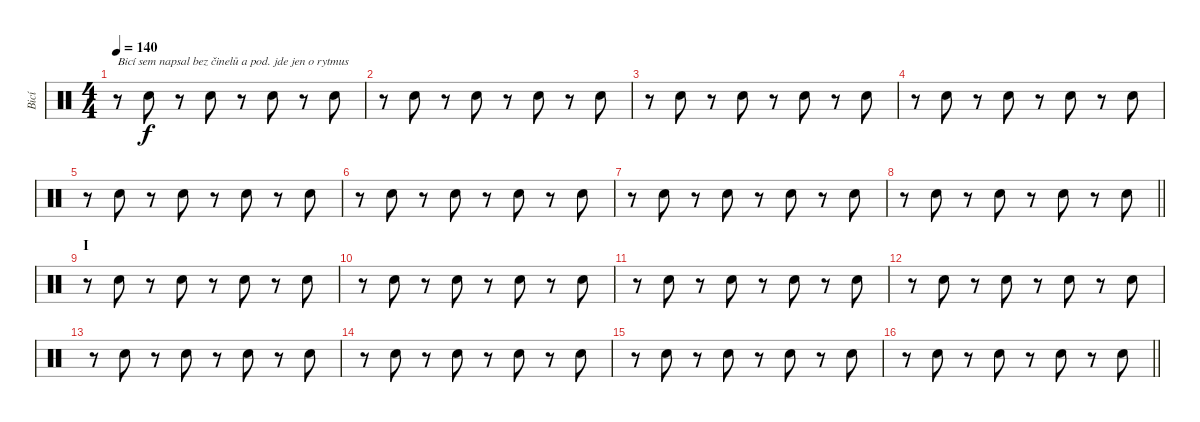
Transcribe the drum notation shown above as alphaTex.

\track ("Bicí" "Bicí") {instrument percussion}
\staff {score}
\articulation defaults
\ts (4 4)
\tempo 140
\clef neutral
\ks c
r.8{txt "Bicí sem napsal bez činelů a pod. jde jen o rytmus" dy f} "Electric Snare (hit)".8 r.8 "Electric Snare (hit)".8 r.8 "Electric Snare (hit)".8 r.8 "Electric Snare (hit)".8 |
r.8 "Electric Snare (hit)".8 r.8 "Electric Snare (hit)".8 r.8 "Electric Snare (hit)".8 r.8 "Electric Snare (hit)".8 |
r.8 "Electric Snare (hit)".8 r.8 "Electric Snare (hit)".8 r.8 "Electric Snare (hit)".8 r.8 "Electric Snare (hit)".8 |
r.8 "Electric Snare (hit)".8 r.8 "Electric Snare (hit)".8 r.8 "Electric Snare (hit)".8 r.8 "Electric Snare (hit)".8 |
r.8 "Electric Snare (hit)".8 r.8 "Electric Snare (hit)".8 r.8 "Electric Snare (hit)".8 r.8 "Electric Snare (hit)".8 |
r.8 "Electric Snare (hit)".8 r.8 "Electric Snare (hit)".8 r.8 "Electric Snare (hit)".8 r.8 "Electric Snare (hit)".8 |
r.8 "Electric Snare (hit)".8 r.8 "Electric Snare (hit)".8 r.8 "Electric Snare (hit)".8 r.8 "Electric Snare (hit)".8 |
\barLineRight lightlight
r.8 "Electric Snare (hit)".8 r.8 "Electric Snare (hit)".8 r.8 "Electric Snare (hit)".8 r.8 "Electric Snare (hit)".8 |
\section ("" "I")
r.8 "Electric Snare (hit)".8 r.8 "Electric Snare (hit)".8 r.8 "Electric Snare (hit)".8 r.8 "Electric Snare (hit)".8 |
r.8 "Electric Snare (hit)".8 r.8 "Electric Snare (hit)".8 r.8 "Electric Snare (hit)".8 r.8 "Electric Snare (hit)".8 |
r.8 "Electric Snare (hit)".8 r.8 "Electric Snare (hit)".8 r.8 "Electric Snare (hit)".8 r.8 "Electric Snare (hit)".8 |
r.8 "Electric Snare (hit)".8 r.8 "Electric Snare (hit)".8 r.8 "Electric Snare (hit)".8 r.8 "Electric Snare (hit)".8 |
r.8 "Electric Snare (hit)".8 r.8 "Electric Snare (hit)".8 r.8 "Electric Snare (hit)".8 r.8 "Electric Snare (hit)".8 |
r.8 "Electric Snare (hit)".8 r.8 "Electric Snare (hit)".8 r.8 "Electric Snare (hit)".8 r.8 "Electric Snare (hit)".8 |
r.8 "Electric Snare (hit)".8 r.8 "Electric Snare (hit)".8 r.8 "Electric Snare (hit)".8 r.8 "Electric Snare (hit)".8 |
\barLineRight lightlight
r.8 "Electric Snare (hit)".8 r.8 "Electric Snare (hit)".8 r.8 "Electric Snare (hit)".8 r.8 "Electric Snare (hit)".8
